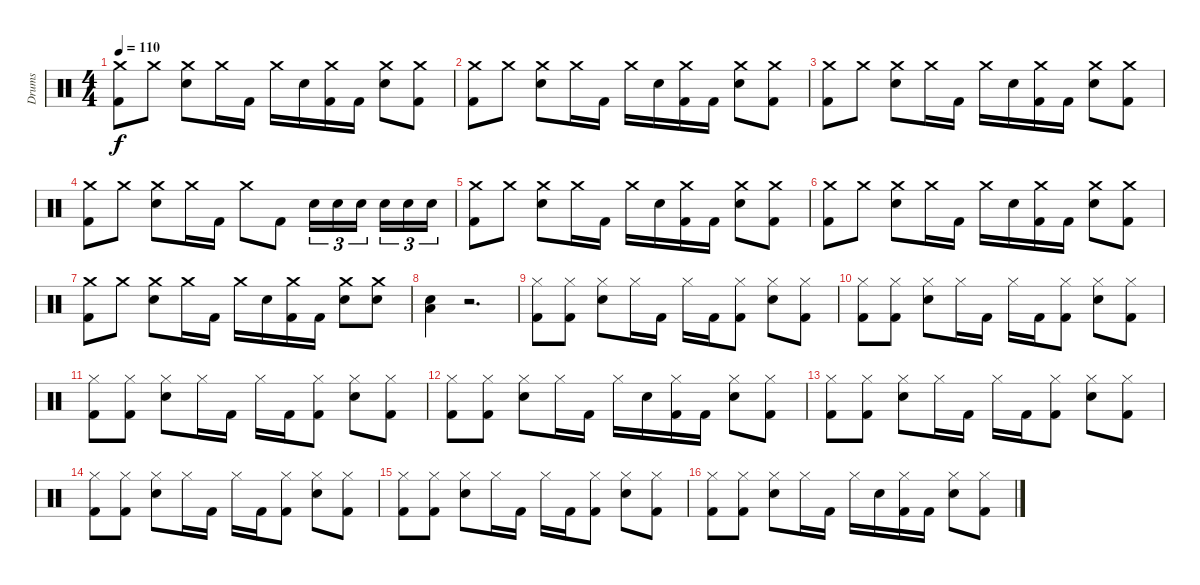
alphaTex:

\track ("Drums" "Drums") {instrument percussion}
\staff {score}
\articulation defaults
\ts (4 4)
\tempo 110
\clef neutral
\ks c
("Crash medium (hit)" "Kick (hit) 2").8{dy f} "Crash medium (hit)".8 ("Crash medium (hit)" "Electric Snare (hit)").8 "Crash medium (hit)".16 "Kick (hit) 2".16 "Crash medium (hit)".16 "Electric Snare (hit)".16 ("Crash medium (hit)" "Kick (hit) 2").16 "Kick (hit) 2".16 ("Crash medium (hit)" "Electric Snare (hit)").8 ("Crash medium (hit)" "Kick (hit) 2").8 |
("Crash medium (hit)" "Kick (hit) 2").8 "Crash medium (hit)".8 ("Crash medium (hit)" "Electric Snare (hit)").8 "Crash medium (hit)".16 "Kick (hit) 2".16 "Crash medium (hit)".16 "Electric Snare (hit)".16 ("Crash medium (hit)" "Kick (hit) 2").16 "Kick (hit) 2".16 ("Crash medium (hit)" "Electric Snare (hit)").8 ("Crash medium (hit)" "Kick (hit) 2").8 |
("Crash medium (hit)" "Kick (hit) 2").8 "Crash medium (hit)".8 ("Crash medium (hit)" "Electric Snare (hit)").8 "Crash medium (hit)".16 "Kick (hit) 2".16 "Crash medium (hit)".16 "Electric Snare (hit)".16 ("Crash medium (hit)" "Kick (hit) 2").16 "Kick (hit) 2".16 ("Crash medium (hit)" "Electric Snare (hit)").8 ("Crash medium (hit)" "Kick (hit) 2").8 |
("Crash medium (hit)" "Kick (hit) 2").8 "Crash medium (hit)".8 ("Crash medium (hit)" "Electric Snare (hit)").8 "Crash medium (hit)".16 "Kick (hit) 2".16 "Crash medium (hit)".8 "Kick (hit) 2".8 "Electric Snare (hit)".16{tu (3 2)} "Electric Snare (hit)".16{tu (3 2)} "Electric Snare (hit)".16{tu (3 2)} "Electric Snare (hit)".16{tu (3 2)} "Electric Snare (hit)".16{tu (3 2)} "Electric Snare (hit)".16{tu (3 2)} |
("Crash medium (hit)" "Kick (hit) 2").8 "Crash medium (hit)".8 ("Crash medium (hit)" "Electric Snare (hit)").8 "Crash medium (hit)".16 "Kick (hit) 2".16 "Crash medium (hit)".16 "Electric Snare (hit)".16 ("Crash medium (hit)" "Kick (hit) 2").16 "Kick (hit) 2".16 ("Crash medium (hit)" "Electric Snare (hit)").8 ("Crash medium (hit)" "Kick (hit) 2").8 |
("Crash medium (hit)" "Kick (hit) 2").8 "Crash medium (hit)".8 ("Crash medium (hit)" "Electric Snare (hit)").8 "Crash medium (hit)".16 "Kick (hit) 2".16 "Crash medium (hit)".16 "Electric Snare (hit)".16 ("Crash medium (hit)" "Kick (hit) 2").16 "Kick (hit) 2".16 ("Crash medium (hit)" "Electric Snare (hit)").8 ("Crash medium (hit)" "Kick (hit) 2").8 |
("Crash medium (hit)" "Kick (hit) 2").8 "Crash medium (hit)".8 ("Crash medium (hit)" "Electric Snare (hit)").8 "Crash medium (hit)".16 "Kick (hit) 2".16 "Crash medium (hit)".16 "Electric Snare (hit)".16 ("Crash medium (hit)" "Kick (hit) 2").16 "Kick (hit) 2".16 ("Crash medium (hit)" "Electric Snare (hit)").8 ("Crash medium (hit)" "Electric Snare (hit)").8 |
("Low Floor Tom (hit)" "Electric Snare (hit)").4 r.2{d} |
("Hi-Hat (closed)" "Kick (hit) 2").8{volume 13} ("Hi-Hat (closed)" "Kick (hit) 2").8 ("Hi-Hat (closed)" "Electric Snare (hit)").8 "Hi-Hat (closed)".16 "Kick (hit) 2".16 "Hi-Hat (closed)".16 "Kick (hit) 2".16 ("Hi-Hat (closed)" "Kick (hit) 2").8 ("Hi-Hat (closed)" "Electric Snare (hit)").8 ("Hi-Hat (closed)" "Kick (hit) 2").8 |
("Hi-Hat (closed)" "Kick (hit) 2").8 ("Hi-Hat (closed)" "Kick (hit) 2").8 ("Hi-Hat (closed)" "Electric Snare (hit)").8 "Hi-Hat (closed)".16 "Kick (hit) 2".16 "Hi-Hat (closed)".16 "Kick (hit) 2".16 ("Hi-Hat (closed)" "Kick (hit) 2").8 ("Hi-Hat (closed)" "Electric Snare (hit)").8 ("Hi-Hat (closed)" "Kick (hit) 2").8 |
("Hi-Hat (closed)" "Kick (hit) 2").8{volume 10} ("Hi-Hat (closed)" "Kick (hit) 2").8 ("Hi-Hat (closed)" "Electric Snare (hit)").8 "Hi-Hat (closed)".16 "Kick (hit) 2".16 "Hi-Hat (closed)".16 "Kick (hit) 2".16 ("Hi-Hat (closed)" "Kick (hit) 2").8 ("Hi-Hat (closed)" "Electric Snare (hit)").8 ("Hi-Hat (closed)" "Kick (hit) 2").8 |
("Hi-Hat (closed)" "Kick (hit) 2").8 ("Hi-Hat (closed)" "Kick (hit) 2").8 ("Hi-Hat (closed)" "Electric Snare (hit)").8 "Hi-Hat (closed)".16 "Kick (hit) 2".16 "Hi-Hat (closed)".16 "Electric Snare (hit)".16 ("Hi-Hat (closed)" "Kick (hit) 2").16 "Kick (hit) 2".16 ("Hi-Hat (closed)" "Electric Snare (hit)").8 ("Hi-Hat (closed)" "Kick (hit) 2").8 |
("Hi-Hat (closed)" "Kick (hit) 2").8 ("Hi-Hat (closed)" "Kick (hit) 2").8 ("Hi-Hat (closed)" "Electric Snare (hit)").8 "Hi-Hat (closed)".16 "Kick (hit) 2".16 "Hi-Hat (closed)".16 "Kick (hit) 2".16 ("Hi-Hat (closed)" "Kick (hit) 2").8 ("Hi-Hat (closed)" "Electric Snare (hit)").8 ("Hi-Hat (closed)" "Kick (hit) 2").8 |
("Hi-Hat (closed)" "Kick (hit) 2").8 ("Hi-Hat (closed)" "Kick (hit) 2").8 ("Hi-Hat (closed)" "Electric Snare (hit)").8 "Hi-Hat (closed)".16 "Kick (hit) 2".16 "Hi-Hat (closed)".16 "Kick (hit) 2".16 ("Hi-Hat (closed)" "Kick (hit) 2").8 ("Hi-Hat (closed)" "Electric Snare (hit)").8 ("Hi-Hat (closed)" "Kick (hit) 2").8 |
("Hi-Hat (closed)" "Kick (hit) 2").8{volume 7} ("Hi-Hat (closed)" "Kick (hit) 2").8 ("Hi-Hat (closed)" "Electric Snare (hit)").8 "Hi-Hat (closed)".16 "Kick (hit) 2".16 "Hi-Hat (closed)".16 "Kick (hit) 2".16 ("Hi-Hat (closed)" "Kick (hit) 2").8 ("Hi-Hat (closed)" "Electric Snare (hit)").8 ("Hi-Hat (closed)" "Kick (hit) 2").8 |
("Hi-Hat (closed)" "Kick (hit) 2").8 ("Hi-Hat (closed)" "Kick (hit) 2").8 ("Hi-Hat (closed)" "Electric Snare (hit)").8 "Hi-Hat (closed)".16 "Kick (hit) 2".16 "Hi-Hat (closed)".16 "Electric Snare (hit)".16 ("Hi-Hat (closed)" "Kick (hit) 2").16 "Kick (hit) 2".16 ("Hi-Hat (closed)" "Electric Snare (hit)").8 ("Hi-Hat (closed)" "Kick (hit) 2").8
